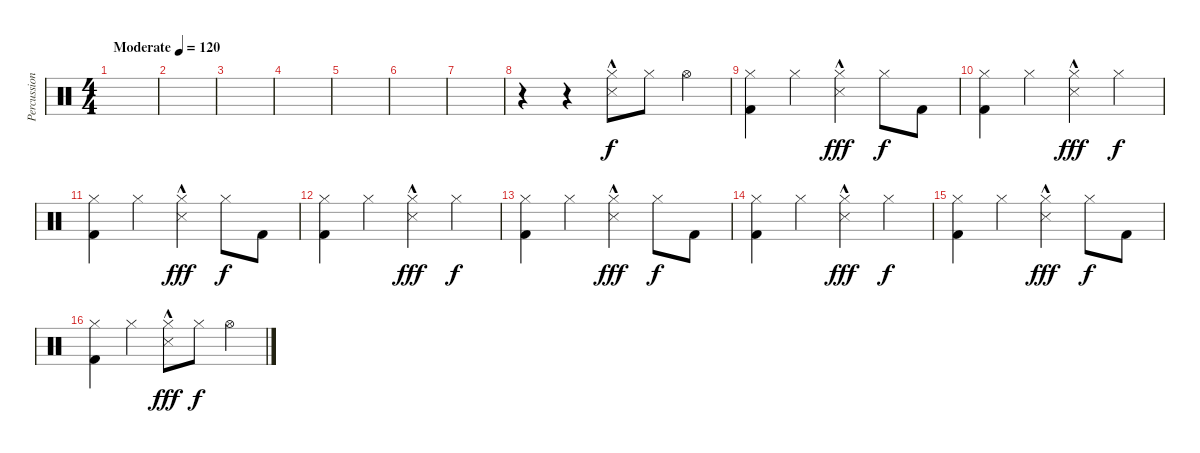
\track ("Percussion" "Percussion") {instrument percussion}
\staff {score}
\articulation defaults
\ts (4 4)
\tempo (120 "Moderate")
\clef neutral
\ks c
|
|
|
|
|
|
|
r.4 r.4 ("Snare (side stick) 3"{hac} "Hi-Hat (closed)").8 "Hi-Hat (closed)".8{dy f} "Hi-Hat (open)".4 |
("Hi-Hat (closed)" "Kick (hit) 2").4 "Hi-Hat (closed)".4 ("Hi-Hat (closed)" "Snare (side stick) 3"{hac}).4{dy fff} "Hi-Hat (closed)".8{dy f} "Kick (hit) 2".8 |
("Kick (hit) 2" "Hi-Hat (closed)").4 "Hi-Hat (closed)".4 ("Hi-Hat (closed)" "Snare (side stick) 3"{hac}).4{dy fff} "Hi-Hat (closed)".4{dy f} |
("Hi-Hat (closed)" "Kick (hit) 2").4 "Hi-Hat (closed)".4 ("Hi-Hat (closed)" "Snare (side stick) 3"{hac}).4{dy fff} "Hi-Hat (closed)".8{dy f} "Kick (hit) 2".8 |
("Kick (hit) 2" "Hi-Hat (closed)").4 "Hi-Hat (closed)".4 ("Hi-Hat (closed)" "Snare (side stick) 3"{hac}).4{dy fff} "Hi-Hat (closed)".4{dy f} |
("Hi-Hat (closed)" "Kick (hit) 2").4 "Hi-Hat (closed)".4 ("Hi-Hat (closed)" "Snare (side stick) 3"{hac}).4{dy fff} "Hi-Hat (closed)".8{dy f} "Kick (hit) 2".8 |
("Kick (hit) 2" "Hi-Hat (closed)").4 "Hi-Hat (closed)".4 ("Hi-Hat (closed)" "Snare (side stick) 3"{hac}).4{dy fff} "Hi-Hat (closed)".4{dy f} |
("Hi-Hat (closed)" "Kick (hit) 2").4 "Hi-Hat (closed)".4 ("Hi-Hat (closed)" "Snare (side stick) 3"{hac}).4{dy fff} "Hi-Hat (closed)".8{dy f} "Kick (hit) 2".8 |
("Kick (hit) 2" "Hi-Hat (closed)").4 "Hi-Hat (closed)".4 ("Hi-Hat (closed)" "Snare (side stick) 3"{hac}).8{dy fff} "Hi-Hat (closed)".8{dy f} "Hi-Hat (open)".4
